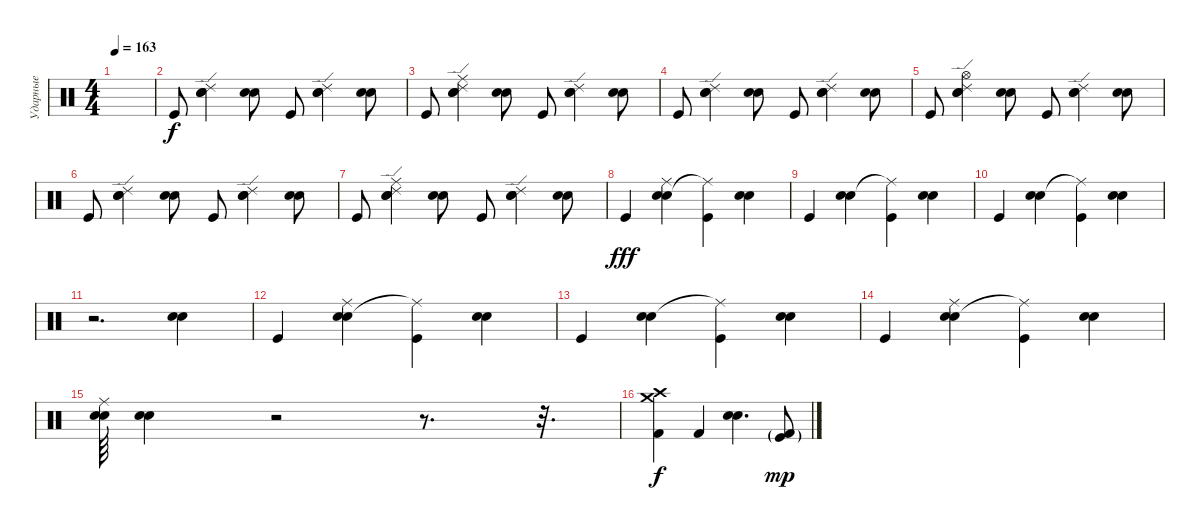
\track ("Ударные" "Ударные") {instrument percussion}
\staff {score}
\articulation defaults
\ts (4 4)
\tempo 163
\clef neutral
\ks c
|
"Kick (hit)".8 ("Snare (hit) 2" "Electric Snare (hit)" "Ride (edge) 2").4 ("Snare (hit) 2" "Electric Snare (hit)").8 "Kick (hit)".8 ("Snare (hit) 2" "Electric Snare (hit)" "Ride (edge) 2").4 ("Snare (hit) 2" "Electric Snare (hit)").8 |
"Kick (hit)".8 ("Ride (middle)" "Snare (hit) 2" "Electric Snare (hit)" "Ride (edge) 2").4 ("Snare (hit) 2" "Electric Snare (hit)").8 "Kick (hit)".8 ("Snare (hit) 2" "Electric Snare (hit)" "Ride (edge) 2").4 ("Snare (hit) 2" "Electric Snare (hit)").8 |
"Kick (hit)".8 ("Snare (hit) 2" "Electric Snare (hit)" "Ride (edge) 2").4 ("Snare (hit) 2" "Electric Snare (hit)").8 "Kick (hit)".8 ("Snare (hit) 2" "Electric Snare (hit)" "Ride (edge) 2").4 ("Snare (hit) 2" "Electric Snare (hit)").8 |
"Kick (hit)".8 ("Hi-Hat (open)" "Snare (hit) 2" "Electric Snare (hit)" "Ride (edge) 2").4 ("Snare (hit) 2" "Electric Snare (hit)").8 "Kick (hit)".8 ("Snare (hit) 2" "Electric Snare (hit)" "Ride (edge) 2").4 ("Snare (hit) 2" "Electric Snare (hit)").8 |
"Kick (hit)".8 ("Snare (hit) 2" "Electric Snare (hit)" "Ride (edge) 2").4 ("Snare (hit) 2" "Electric Snare (hit)").8 "Kick (hit)".8 ("Snare (hit) 2" "Electric Snare (hit)" "Ride (edge) 2").4 ("Snare (hit) 2" "Electric Snare (hit)").8 |
"Kick (hit)".8 ("Ride (middle)" "Snare (hit) 2" "Electric Snare (hit)" "Ride (edge) 2").4 ("Snare (hit) 2" "Electric Snare (hit)").8 "Kick (hit)".8 ("Snare (hit) 2" "Electric Snare (hit)" "Ride (edge) 2").4 ("Snare (hit) 2" "Electric Snare (hit)").8 |
"Kick (hit)".4{dy fff} ("Snare (hit) 2" "Electric Snare (hit)" "Ride (middle)").4 ("Ride (middle)"{t} "Kick (hit)").4 ("Snare (hit) 2" "Electric Snare (hit)").4 |
"Kick (hit)".4 ("Snare (hit) 2" "Electric Snare (hit)").4 ("Ride (middle)"{t} "Kick (hit)").4 ("Snare (hit) 2" "Electric Snare (hit)").4 |
"Kick (hit)".4 ("Snare (hit) 2" "Electric Snare (hit)").4 ("Ride (middle)"{t} "Kick (hit)").4 ("Snare (hit) 2" "Electric Snare (hit)").4 |
r.2{d} ("Snare (hit) 2" "Electric Snare (hit)").4 |
"Kick (hit)".4 ("Snare (hit) 2" "Electric Snare (hit)" "Ride (middle)").4 ("Ride (middle)"{t} "Kick (hit)").4 ("Snare (hit) 2" "Electric Snare (hit)").4 |
"Kick (hit)".4 ("Snare (hit) 2" "Electric Snare (hit)").4 ("Ride (middle)"{t} "Kick (hit)").4 ("Snare (hit) 2" "Electric Snare (hit)").4 |
"Kick (hit)".4 ("Snare (hit) 2" "Electric Snare (hit)" "Ride (middle)").4 ("Ride (middle)"{t} "Kick (hit)").4 ("Snare (hit) 2" "Electric Snare (hit)").4 |
("Snare (hit) 2" "Electric Snare (hit)" "Ride (middle)").64 ("Snare (hit) 2" "Electric Snare (hit)").4 r.2 r.8{d} r.32{d} |
("Crash medium (hit)" "Crash high (hit)" "Kick (hit) 2").4{dy f} "Kick (hit) 2".4 ("Electric Snare (hit)" "Snare (hit) 2").4{d} ("Kick (hit) 2"{g} "Kick (hit)"{g}).8{dy mp}
